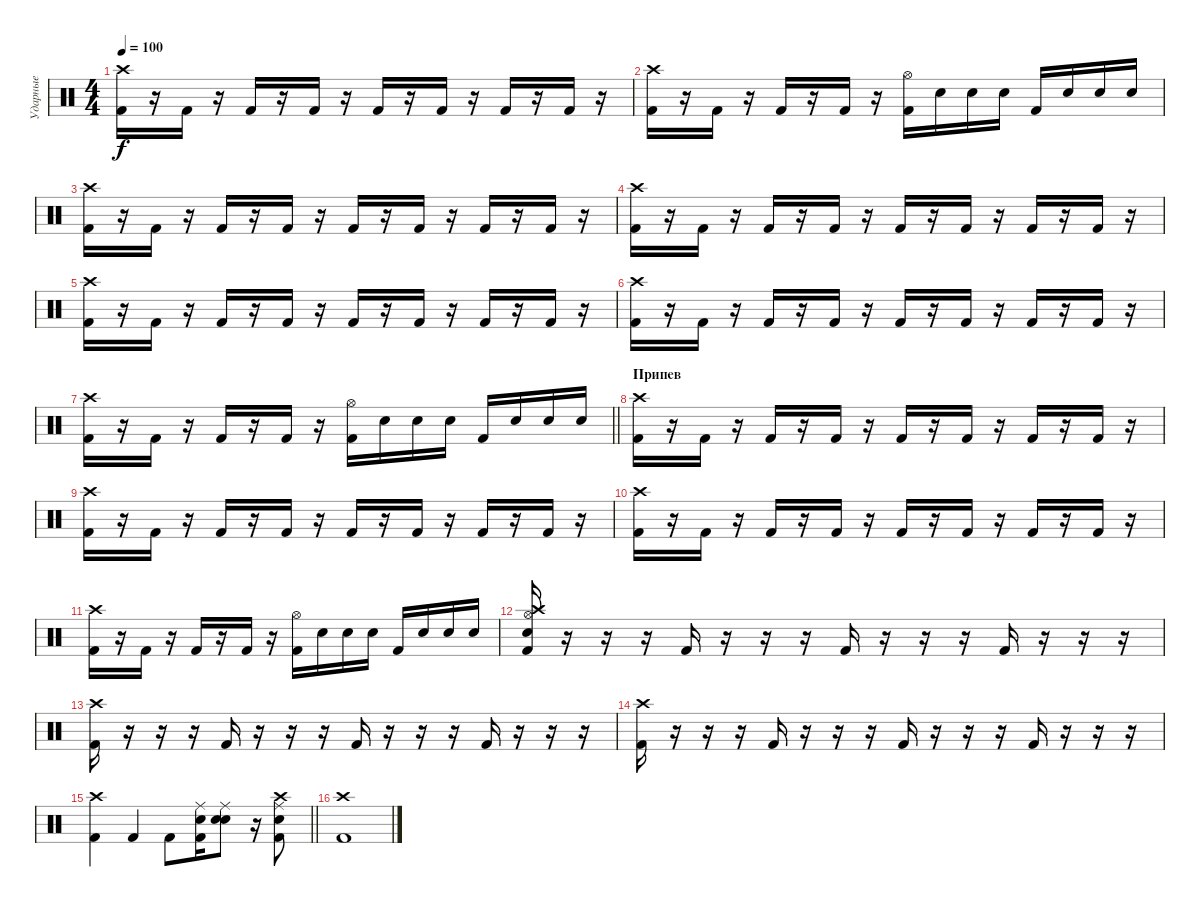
\track ("Ударные" "Ударные") {instrument percussion}
\staff {score}
\articulation defaults
\ts (4 4)
\tempo 100
\clef neutral
\ks c
("Kick (hit) 2" "Crash high (hit)").16{dy f} r.16 "Kick (hit) 2".16 r.16 "Kick (hit) 2".16 r.16 "Kick (hit) 2".16 r.16 "Kick (hit) 2".16 r.16 "Kick (hit) 2".16 r.16 "Kick (hit) 2".16 r.16 "Kick (hit) 2".16 r.16 |
("Kick (hit) 2" "Crash high (hit)").16 r.16 "Kick (hit) 2".16 r.16 "Kick (hit) 2".16 r.16 "Kick (hit) 2".16 r.16 ("Kick (hit) 2" "Hi-Hat (open)").16 "Snare (hit) 2".16 "Snare (hit) 2".16 "Snare (hit) 2".16 "Kick (hit) 2".16 "Snare (hit) 2".16 "Snare (hit) 2".16 "Snare (hit) 2".16 |
("Kick (hit) 2" "Crash high (hit)").16 r.16 "Kick (hit) 2".16 r.16 "Kick (hit) 2".16 r.16 "Kick (hit) 2".16 r.16 "Kick (hit) 2".16 r.16 "Kick (hit) 2".16 r.16 "Kick (hit) 2".16 r.16 "Kick (hit) 2".16 r.16 |
("Kick (hit) 2" "Crash high (hit)").16 r.16 "Kick (hit) 2".16 r.16 "Kick (hit) 2".16 r.16 "Kick (hit) 2".16 r.16 "Kick (hit) 2".16 r.16 "Kick (hit) 2".16 r.16 "Kick (hit) 2".16 r.16 "Kick (hit) 2".16 r.16 |
("Kick (hit) 2" "Crash high (hit)").16 r.16 "Kick (hit) 2".16 r.16 "Kick (hit) 2".16 r.16 "Kick (hit) 2".16 r.16 "Kick (hit) 2".16 r.16 "Kick (hit) 2".16 r.16 "Kick (hit) 2".16 r.16 "Kick (hit) 2".16 r.16 |
("Kick (hit) 2" "Crash high (hit)").16 r.16 "Kick (hit) 2".16 r.16 "Kick (hit) 2".16 r.16 "Kick (hit) 2".16 r.16 "Kick (hit) 2".16 r.16 "Kick (hit) 2".16 r.16 "Kick (hit) 2".16 r.16 "Kick (hit) 2".16 r.16 |
\barLineRight lightlight
("Kick (hit) 2" "Crash high (hit)").16 r.16 "Kick (hit) 2".16 r.16 "Kick (hit) 2".16 r.16 "Kick (hit) 2".16 r.16 ("Kick (hit) 2" "Hi-Hat (open)").16 "Snare (hit) 2".16 "Snare (hit) 2".16 "Snare (hit) 2".16 "Kick (hit) 2".16 "Snare (hit) 2".16 "Snare (hit) 2".16 "Snare (hit) 2".16 |
\section ("" "Припев")
("Kick (hit) 2" "Crash high (hit)").16 r.16 "Kick (hit) 2".16 r.16 "Kick (hit) 2".16 r.16 "Kick (hit) 2".16 r.16 "Kick (hit) 2".16 r.16 "Kick (hit) 2".16 r.16 "Kick (hit) 2".16 r.16 "Kick (hit) 2".16 r.16 |
("Kick (hit) 2" "Crash high (hit)").16 r.16 "Kick (hit) 2".16 r.16 "Kick (hit) 2".16 r.16 "Kick (hit) 2".16 r.16 "Kick (hit) 2".16 r.16 "Kick (hit) 2".16 r.16 "Kick (hit) 2".16 r.16 "Kick (hit) 2".16 r.16 |
("Kick (hit) 2" "Crash high (hit)").16 r.16 "Kick (hit) 2".16 r.16 "Kick (hit) 2".16 r.16 "Kick (hit) 2".16 r.16 "Kick (hit) 2".16 r.16 "Kick (hit) 2".16 r.16 "Kick (hit) 2".16 r.16 "Kick (hit) 2".16 r.16 |
("Kick (hit) 2" "Crash high (hit)").16 r.16 "Kick (hit) 2".16 r.16 "Kick (hit) 2".16 r.16 "Kick (hit) 2".16 r.16 ("Kick (hit) 2" "Hi-Hat (open)").16 "Snare (hit) 2".16 "Snare (hit) 2".16 "Snare (hit) 2".16 "Kick (hit) 2".16 "Snare (hit) 2".16 "Snare (hit) 2".16 "Snare (hit) 2".16 |
("Snare (hit) 2" "Crash high (hit)" "Hi-Hat (open)" "Kick (hit) 2").16 r.16 r.16 r.16 "Kick (hit) 2".16 r.16 r.16 r.16 "Kick (hit) 2".16 r.16 r.16 r.16 "Kick (hit) 2".16 r.16 r.16 r.16 |
("Kick (hit) 2" "Crash high (hit)").16 r.16 r.16 r.16 "Kick (hit) 2".16 r.16 r.16 r.16 "Kick (hit) 2".16 r.16 r.16 r.16 "Kick (hit) 2".16 r.16 r.16 r.16 |
("Kick (hit) 2" "Crash high (hit)").16 r.16 r.16 r.16 "Kick (hit) 2".16 r.16 r.16 r.16 "Kick (hit) 2".16 r.16 r.16 r.16 "Kick (hit) 2".16 r.16 r.16 r.16 |
\barLineRight lightlight
("Kick (hit) 2" "Crash high (hit)").4 "Kick (hit) 2".4 "Kick (hit) 2".8 ("Snare (hit) 2" "Kick (hit) 2" "Ride (middle)").16 ("Snare (hit) 2" "Electric Snare (hit)" "Ride (middle)").8 r.16 ("Snare (hit) 2" "Kick (hit) 2" "Crash high (hit)" "Ride (middle)").8 |
("Kick (hit) 2" "Crash high (hit)").1
